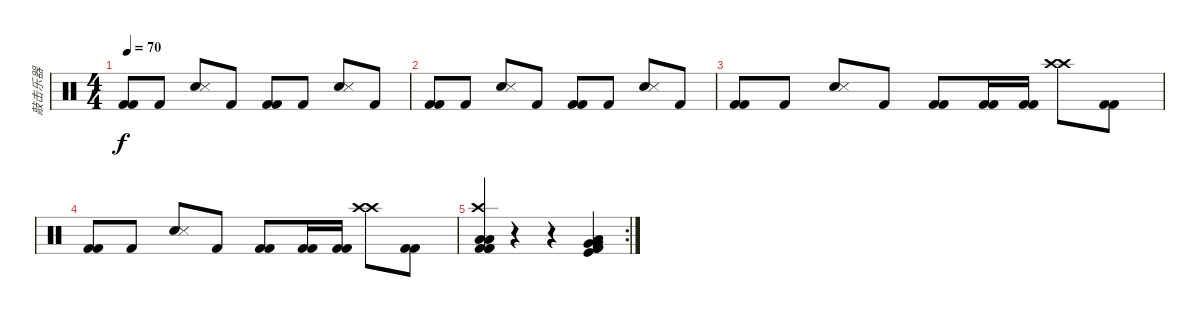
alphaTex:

\track ("敲击乐器" "敲击乐器") {instrument percussion}
\staff {score}
\articulation defaults
\ts (4 4)
\tempo 70
\clef neutral
\ks c
("Kick (hit) 2" "Kick (hit) 2").8{dy f} "Kick (hit) 2".8 ("Snare (hit) 2" "Snare (side stick) 3").8 "Kick (hit) 2".8 ("Kick (hit) 2" "Kick (hit) 2").8 "Kick (hit) 2".8 ("Snare (hit) 2" "Snare (side stick) 3").8 "Kick (hit) 2".8 |
("Kick (hit) 2" "Kick (hit) 2").8 "Kick (hit) 2".8 ("Snare (hit) 2" "Snare (side stick) 3").8 "Kick (hit) 2".8 ("Kick (hit) 2" "Kick (hit) 2").8 "Kick (hit) 2".8 ("Snare (hit) 2" "Snare (side stick) 3").8 "Kick (hit) 2".8 |
("Kick (hit) 2" "Kick (hit) 2").8 "Kick (hit) 2".8 ("Snare (hit) 2" "Snare (side stick) 3").8 "Kick (hit) 2".8 ("Kick (hit) 2" "Kick (hit) 2").8 ("Kick (hit) 2" "Kick (hit) 2").16 ("Kick (hit) 2" "Kick (hit) 2").16 ("Crash high (hit)" "Crash high (hit)").8 ("Kick (hit) 2" "Kick (hit) 2").8 |
("Kick (hit) 2" "Kick (hit) 2").8 "Kick (hit) 2".8 ("Snare (hit) 2" "Snare (side stick) 3").8 "Kick (hit) 2".8 ("Kick (hit) 2" "Kick (hit) 2").8 ("Kick (hit) 2" "Kick (hit) 2").16 ("Kick (hit) 2" "Kick (hit) 2").16 ("Crash high (hit)" "Crash high (hit)").8 ("Kick (hit) 2" "Kick (hit) 2").8 |
\rc 2
("Crash high (hit)" "Kick (hit) 2" "Low Tom (hit)" "Kick (hit) 2" "Low Tom (hit)" "Kick (hit) 2").4 r.4 r.4 ("Kick (hit)" "Kick (hit) 2" "Low Tom (hit)" "Kick (hit) 2" "Very Low Tom (hit)" "Very Low Tom (hit)").4
